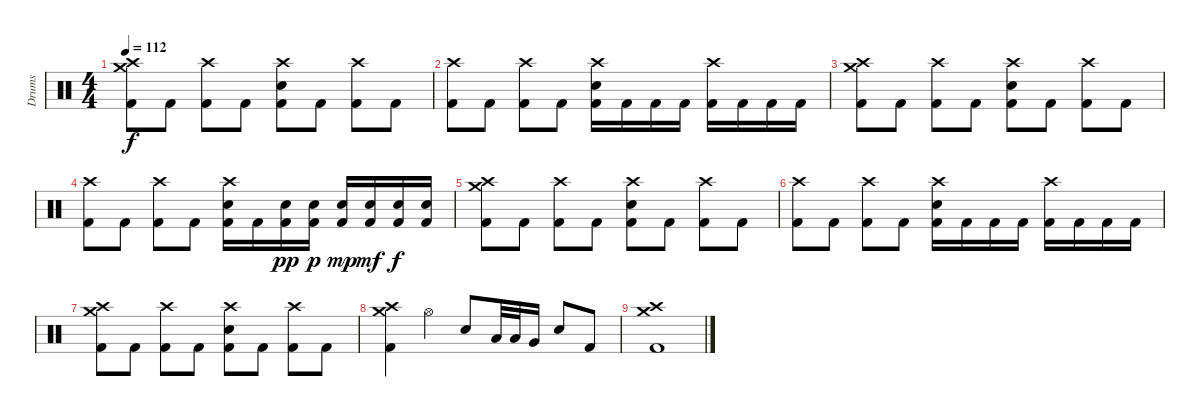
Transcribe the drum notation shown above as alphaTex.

\track ("Drums " "Drums ") {instrument percussion}
\staff {score}
\articulation defaults
\ts (4 4)
\tempo 112
\clef neutral
\ks c
("Crash high (hit)" "Crash medium (hit)" "Kick (hit) 2").8{dy f} "Kick (hit) 2".8 ("Crash high (hit)" "Kick (hit) 2").8 "Kick (hit) 2".8 ("Crash high (hit)" "Electric Snare (hit)" "Kick (hit) 2").8 "Kick (hit) 2".8 ("Crash high (hit)" "Kick (hit) 2").8 "Kick (hit) 2".8 |
("Crash high (hit)" "Kick (hit) 2").8 "Kick (hit) 2".8 ("Crash high (hit)" "Kick (hit) 2").8 "Kick (hit) 2".8 ("Crash high (hit)" "Electric Snare (hit)" "Kick (hit) 2").16 "Kick (hit) 2".16 "Kick (hit) 2".16 "Kick (hit) 2".16 ("Crash high (hit)" "Kick (hit) 2").16 "Kick (hit) 2".16 "Kick (hit) 2".16 "Kick (hit) 2".16 |
("Crash high (hit)" "Crash medium (hit)" "Kick (hit) 2").8 "Kick (hit) 2".8 ("Crash high (hit)" "Kick (hit) 2").8 "Kick (hit) 2".8 ("Crash high (hit)" "Electric Snare (hit)" "Kick (hit) 2").8 "Kick (hit) 2".8 ("Crash high (hit)" "Kick (hit) 2").8 "Kick (hit) 2".8 |
("Crash high (hit)" "Kick (hit) 2").8 "Kick (hit) 2".8 ("Crash high (hit)" "Kick (hit) 2").8 "Kick (hit) 2".8 ("Crash high (hit)" "Electric Snare (hit)" "Kick (hit) 2").16 "Kick (hit) 2".16 ("Electric Snare (hit)" "Kick (hit) 2").16{dy pp} ("Electric Snare (hit)" "Kick (hit) 2").16{dy p} ("Electric Snare (hit)" "Kick (hit) 2").16{dy mp} ("Electric Snare (hit)" "Kick (hit) 2").16{dy mf} ("Electric Snare (hit)" "Kick (hit) 2").16{dy f} ("Electric Snare (hit)" "Kick (hit) 2").16 |
("Crash high (hit)" "Crash medium (hit)" "Kick (hit) 2").8 "Kick (hit) 2".8 ("Crash high (hit)" "Kick (hit) 2").8 "Kick (hit) 2".8 ("Crash high (hit)" "Electric Snare (hit)" "Kick (hit) 2").8 "Kick (hit) 2".8 ("Crash high (hit)" "Kick (hit) 2").8 "Kick (hit) 2".8 |
("Crash high (hit)" "Kick (hit) 2").8 "Kick (hit) 2".8 ("Crash high (hit)" "Kick (hit) 2").8 "Kick (hit) 2".8 ("Crash high (hit)" "Electric Snare (hit)" "Kick (hit) 2").16 "Kick (hit) 2".16 "Kick (hit) 2".16 "Kick (hit) 2".16 ("Crash high (hit)" "Kick (hit) 2").16 "Kick (hit) 2".16 "Kick (hit) 2".16 "Kick (hit) 2".16 |
("Crash high (hit)" "Crash medium (hit)" "Kick (hit) 2").8 "Kick (hit) 2".8 ("Crash high (hit)" "Kick (hit) 2").8 "Kick (hit) 2".8 ("Crash high (hit)" "Electric Snare (hit)" "Kick (hit) 2").8 "Kick (hit) 2".8 ("Crash high (hit)" "Kick (hit) 2").8 "Kick (hit) 2".8 |
("Crash high (hit)" "Crash medium (hit)" "Kick (hit) 2").4 "Hi-Hat (open)".4 "Electric Snare (hit)".8 "Low Tom (hit)".32 "Low Tom (hit)".32 "Very Low Tom (hit)".16 "Electric Snare (hit)".8 "Kick (hit) 2".8 |
("Crash high (hit)" "Crash medium (hit)" "Kick (hit) 2").1
